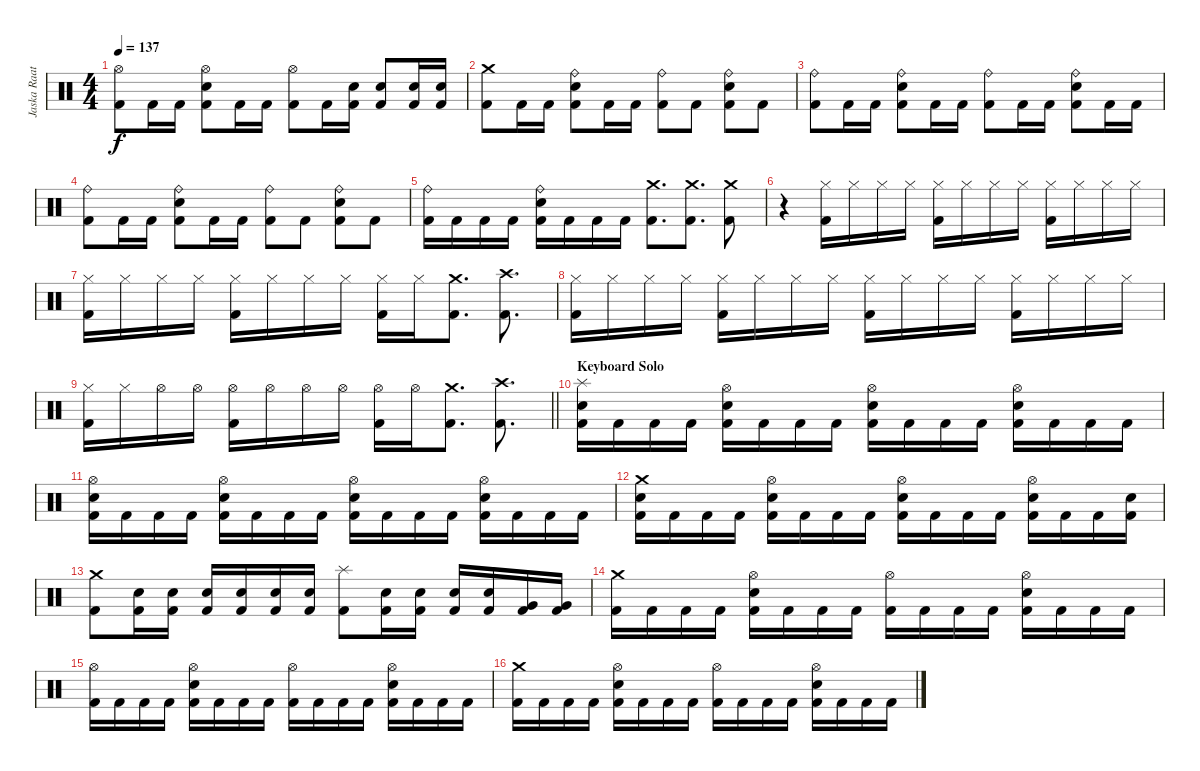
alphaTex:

\track ("Jaska Raatikainen" "Jaska Raat") {instrument percussion}
\staff {score}
\articulation defaults
\ts (4 4)
\tempo 137
\clef neutral
\ks c
("Hi-Hat (open)" "Kick (hit) 2").8{dy f} "Kick (hit) 2".16 "Kick (hit) 2".16 ("Hi-Hat (open)" "Electric Snare (hit)" "Kick (hit) 2").8 "Kick (hit) 2".16 "Kick (hit) 2".16 ("Hi-Hat (open)" "Kick (hit) 2").8 "Kick (hit) 2".16 ("Electric Snare (hit)" "Kick (hit) 2").16 ("Electric Snare (hit)" "Kick (hit) 2").8 ("Electric Snare (hit)" "Kick (hit) 2").16 ("Electric Snare (hit)" "Kick (hit) 2").16 |
("Crash medium (hit)" "Kick (hit) 2").8 "Kick (hit) 2".16 "Kick (hit) 2".16 ("Ride (bell)" "Electric Snare (hit)" "Kick (hit) 2").8 "Kick (hit) 2".16 "Kick (hit) 2".16 ("Ride (bell)" "Kick (hit) 2").8 "Kick (hit) 2".8 ("Ride (bell)" "Electric Snare (hit)" "Kick (hit) 2").8 "Kick (hit) 2".8 |
("Ride (bell)" "Kick (hit) 2").8 "Kick (hit) 2".16 "Kick (hit) 2".16 ("Ride (bell)" "Electric Snare (hit)" "Kick (hit) 2").8 "Kick (hit) 2".16 "Kick (hit) 2".16 ("Ride (bell)" "Kick (hit) 2").8 "Kick (hit) 2".16 "Kick (hit) 2".16 ("Ride (bell)" "Electric Snare (hit)" "Kick (hit) 2").8 "Kick (hit) 2".16 "Kick (hit) 2".16 |
("Ride (bell)" "Kick (hit) 2").8 "Kick (hit) 2".16 "Kick (hit) 2".16 ("Ride (bell)" "Electric Snare (hit)" "Kick (hit) 2").8 "Kick (hit) 2".16 "Kick (hit) 2".16 ("Ride (bell)" "Kick (hit) 2").8 "Kick (hit) 2".8 ("Ride (bell)" "Electric Snare (hit)" "Kick (hit) 2").8 "Kick (hit) 2".8 |
("Ride (bell)" "Kick (hit) 2").16 "Kick (hit) 2".16 "Kick (hit) 2".16 "Kick (hit) 2".16 ("Ride (bell)" "Electric Snare (hit)" "Kick (hit) 2").16 "Kick (hit) 2".16 "Kick (hit) 2".16 "Kick (hit) 2".16 ("Crash medium (hit)" "Kick (hit) 2").8{d} ("Crash medium (hit)" "Kick (hit) 2").8{d} ("Crash medium (hit)" "Kick (hit) 2").8 |
r.4 ("Hi-Hat (closed)" "Kick (hit) 2").16 "Hi-Hat (closed)".16 "Hi-Hat (closed)".16 "Hi-Hat (closed)".16 ("Hi-Hat (closed)" "Kick (hit) 2").16 "Hi-Hat (closed)".16 "Hi-Hat (closed)".16 "Hi-Hat (closed)".16 ("Hi-Hat (closed)" "Kick (hit) 2").16 "Hi-Hat (closed)".16 "Hi-Hat (closed)".16 "Hi-Hat (closed)".16 |
("Hi-Hat (closed)" "Kick (hit) 2").16 "Hi-Hat (closed)".16 "Hi-Hat (closed)".16 "Hi-Hat (closed)".16 ("Hi-Hat (closed)" "Kick (hit) 2").16 "Hi-Hat (closed)".16 "Hi-Hat (closed)".16 "Hi-Hat (closed)".16 ("Hi-Hat (closed)" "Kick (hit) 2").16 "Hi-Hat (closed)".16 ("Crash medium (hit)" "Kick (hit) 2").8{d} ("Crash high (hit)" "Kick (hit) 2").8{d} |
("Hi-Hat (closed)" "Kick (hit) 2").16 "Hi-Hat (closed)".16 "Hi-Hat (closed)".16 "Hi-Hat (closed)".16 ("Hi-Hat (closed)" "Kick (hit) 2").16 "Hi-Hat (closed)".16 "Hi-Hat (closed)".16 "Hi-Hat (closed)".16 ("Hi-Hat (closed)" "Kick (hit) 2").16 "Hi-Hat (closed)".16 "Hi-Hat (closed)".16 "Hi-Hat (closed)".16 ("Hi-Hat (closed)" "Kick (hit) 2").16 "Hi-Hat (closed)".16 "Hi-Hat (closed)".16 "Hi-Hat (closed)".16 |
\barLineRight lightlight
("Hi-Hat (closed)" "Kick (hit) 2").16 "Hi-Hat (closed)".16 "Hi-Hat (open)".16 "Hi-Hat (open)".16 ("Hi-Hat (open)" "Kick (hit) 2").16 "Hi-Hat (open)".16 "Hi-Hat (open)".16 "Hi-Hat (open)".16 ("Hi-Hat (open)" "Kick (hit) 2").16 "Hi-Hat (open)".16 ("Crash medium (hit)" "Kick (hit) 2").8{d} ("Crash high (hit)" "Kick (hit) 2").8{d} |
\section ("" "Keyboard Solo")
("Splash (hit)" "Electric Snare (hit)" "Kick (hit) 2").16 "Kick (hit) 2".16 "Kick (hit) 2".16 "Kick (hit) 2".16 ("Hi-Hat (open)" "Electric Snare (hit)" "Kick (hit) 2").16 "Kick (hit) 2".16 "Kick (hit) 2".16 "Kick (hit) 2".16 ("Hi-Hat (open)" "Electric Snare (hit)" "Kick (hit) 2").16 "Kick (hit) 2".16 "Kick (hit) 2".16 "Kick (hit) 2".16 ("Hi-Hat (open)" "Electric Snare (hit)" "Kick (hit) 2").16 "Kick (hit) 2".16 "Kick (hit) 2".16 "Kick (hit) 2".16 |
("Hi-Hat (open)" "Electric Snare (hit)" "Kick (hit) 2").16 "Kick (hit) 2".16 "Kick (hit) 2".16 "Kick (hit) 2".16 ("Hi-Hat (open)" "Electric Snare (hit)" "Kick (hit) 2").16 "Kick (hit) 2".16 "Kick (hit) 2".16 "Kick (hit) 2".16 ("Hi-Hat (open)" "Electric Snare (hit)" "Kick (hit) 2").16 "Kick (hit) 2".16 "Kick (hit) 2".16 "Kick (hit) 2".16 ("Hi-Hat (open)" "Electric Snare (hit)" "Kick (hit) 2").16 "Kick (hit) 2".16 "Kick (hit) 2".16 "Kick (hit) 2".16 |
("Crash medium (hit)" "Electric Snare (hit)" "Kick (hit) 2").16 "Kick (hit) 2".16 "Kick (hit) 2".16 "Kick (hit) 2".16 ("Hi-Hat (open)" "Electric Snare (hit)" "Kick (hit) 2").16 "Kick (hit) 2".16 "Kick (hit) 2".16 "Kick (hit) 2".16 ("Hi-Hat (open)" "Electric Snare (hit)" "Kick (hit) 2").16 "Kick (hit) 2".16 "Kick (hit) 2".16 "Kick (hit) 2".16 ("Hi-Hat (open)" "Electric Snare (hit)" "Kick (hit) 2").16 "Kick (hit) 2".16 "Kick (hit) 2".16 ("Electric Snare (hit)" "Kick (hit) 2").16 |
("Crash medium (hit)" "Kick (hit) 2").8 ("Electric Snare (hit)" "Kick (hit) 2").16 ("Electric Snare (hit)" "Kick (hit) 2").16 ("Electric Snare (hit)" "Kick (hit) 2").16 ("Electric Snare (hit)" "Kick (hit) 2").16 ("Electric Snare (hit)" "Kick (hit) 2").16 ("Electric Snare (hit)" "Kick (hit) 2").16 ("Splash (hit)" "Kick (hit) 2").8 ("Electric Snare (hit)" "Kick (hit) 2").16 ("Electric Snare (hit)" "Kick (hit) 2").16 ("Electric Snare (hit)" "Kick (hit) 2").16 ("Electric Snare (hit)" "Kick (hit) 2").16 ("Very Low Tom (hit)" "Kick (hit) 2").16 ("Very Low Tom (hit)" "Kick (hit) 2").16 |
("Crash medium (hit)" "Kick (hit) 2").16 "Kick (hit) 2".16 "Kick (hit) 2".16 "Kick (hit) 2".16 ("Hi-Hat (open)" "Electric Snare (hit)" "Kick (hit) 2").16 "Kick (hit) 2".16 "Kick (hit) 2".16 "Kick (hit) 2".16 ("Hi-Hat (open)" "Kick (hit) 2").16 "Kick (hit) 2".16 "Kick (hit) 2".16 "Kick (hit) 2".16 ("Hi-Hat (open)" "Electric Snare (hit)" "Kick (hit) 2").16 "Kick (hit) 2".16 "Kick (hit) 2".16 "Kick (hit) 2".16 |
("Hi-Hat (open)" "Kick (hit) 2").16 "Kick (hit) 2".16 "Kick (hit) 2".16 "Kick (hit) 2".16 ("Hi-Hat (open)" "Electric Snare (hit)" "Kick (hit) 2").16 "Kick (hit) 2".16 "Kick (hit) 2".16 "Kick (hit) 2".16 ("Hi-Hat (open)" "Kick (hit) 2").16 "Kick (hit) 2".16 "Kick (hit) 2".16 "Kick (hit) 2".16 ("Hi-Hat (open)" "Electric Snare (hit)" "Kick (hit) 2").16 "Kick (hit) 2".16 "Kick (hit) 2".16 "Kick (hit) 2".16 |
("Crash medium (hit)" "Kick (hit) 2").16 "Kick (hit) 2".16 "Kick (hit) 2".16 "Kick (hit) 2".16 ("Hi-Hat (open)" "Electric Snare (hit)" "Kick (hit) 2").16 "Kick (hit) 2".16 "Kick (hit) 2".16 "Kick (hit) 2".16 ("Hi-Hat (open)" "Kick (hit) 2").16 "Kick (hit) 2".16 "Kick (hit) 2".16 "Kick (hit) 2".16 ("Hi-Hat (open)" "Electric Snare (hit)" "Kick (hit) 2").16 "Kick (hit) 2".16 "Kick (hit) 2".16 "Kick (hit) 2".16
